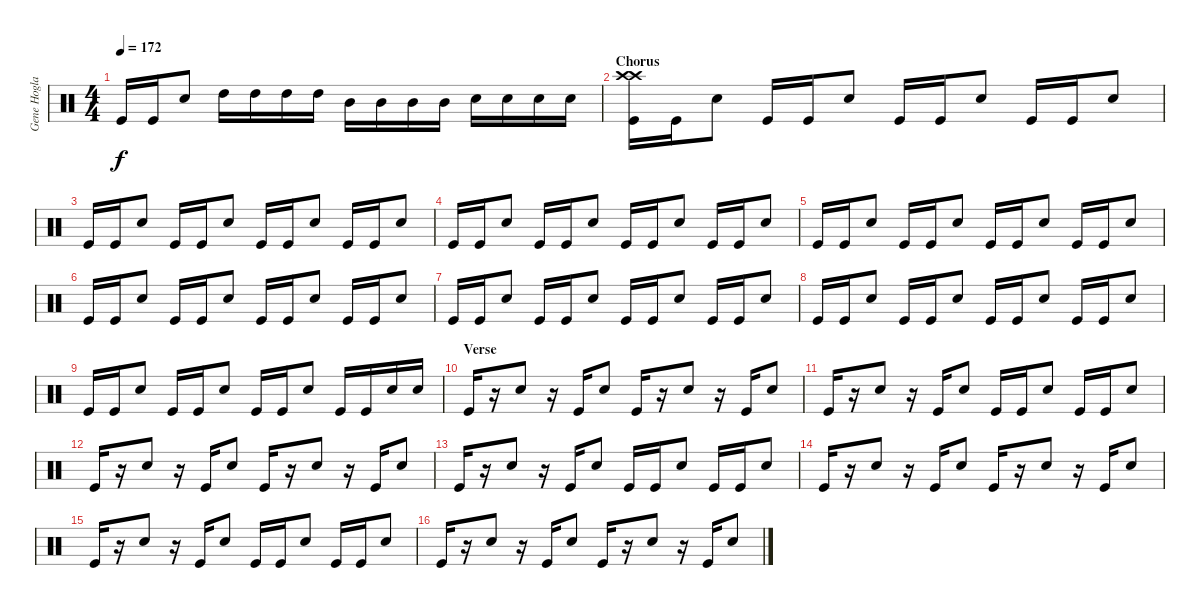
\track ("Gene Hoglan" "Gene Hogla") {instrument percussion}
\staff {score}
\articulation defaults
\ts (4 4)
\tempo 172
\clef neutral
\ks c "Kick (hit)".16{dy f} "Kick (hit)".16 "Snare (hit) 2".8 "High Tom (hit)".16 "High Tom (hit)".16 "High Tom (hit)".16 "High Tom (hit)".16 "Mid Tom (hit)".16 "Mid Tom (hit)".16 "Mid Tom (hit)".16 "Mid Tom (hit)".16 "Snare (hit) 2".16 "Snare (hit) 2".16 "Snare (hit) 2".16 "Snare (hit) 2".16
|
\section ("" "Chorus")
("Crash high (hit)" "Crash high (hit)" "Kick (hit)").16 "Kick (hit)".16 "Snare (hit) 2".8 "Kick (hit)".16 "Kick (hit)".16 "Snare (hit) 2".8 "Kick (hit)".16 "Kick (hit)".16 "Snare (hit) 2".8 "Kick (hit)".16 "Kick (hit)".16 "Snare (hit) 2".8 |
"Kick (hit)".16 "Kick (hit)".16 "Snare (hit) 2".8 "Kick (hit)".16 "Kick (hit)".16 "Snare (hit) 2".8 "Kick (hit)".16 "Kick (hit)".16 "Snare (hit) 2".8 "Kick (hit)".16 "Kick (hit)".16 "Snare (hit) 2".8 |
"Kick (hit)".16 "Kick (hit)".16 "Snare (hit) 2".8 "Kick (hit)".16 "Kick (hit)".16 "Snare (hit) 2".8 "Kick (hit)".16 "Kick (hit)".16 "Snare (hit) 2".8 "Kick (hit)".16 "Kick (hit)".16 "Snare (hit) 2".8 |
"Kick (hit)".16 "Kick (hit)".16 "Snare (hit) 2".8 "Kick (hit)".16 "Kick (hit)".16 "Snare (hit) 2".8 "Kick (hit)".16 "Kick (hit)".16 "Snare (hit) 2".8 "Kick (hit)".16 "Kick (hit)".16 "Snare (hit) 2".8 |
"Kick (hit)".16 "Kick (hit)".16 "Snare (hit) 2".8 "Kick (hit)".16 "Kick (hit)".16 "Snare (hit) 2".8 "Kick (hit)".16 "Kick (hit)".16 "Snare (hit) 2".8 "Kick (hit)".16 "Kick (hit)".16 "Snare (hit) 2".8 |
"Kick (hit)".16 "Kick (hit)".16 "Snare (hit) 2".8 "Kick (hit)".16 "Kick (hit)".16 "Snare (hit) 2".8 "Kick (hit)".16 "Kick (hit)".16 "Snare (hit) 2".8 "Kick (hit)".16 "Kick (hit)".16 "Snare (hit) 2".8 |
"Kick (hit)".16 "Kick (hit)".16 "Snare (hit) 2".8 "Kick (hit)".16 "Kick (hit)".16 "Snare (hit) 2".8 "Kick (hit)".16 "Kick (hit)".16 "Snare (hit) 2".8 "Kick (hit)".16 "Kick (hit)".16 "Snare (hit) 2".8 |
"Kick (hit)".16 "Kick (hit)".16 "Snare (hit) 2".8 "Kick (hit)".16 "Kick (hit)".16 "Snare (hit) 2".8 "Kick (hit)".16 "Kick (hit)".16 "Snare (hit) 2".8 "Kick (hit)".16 "Kick (hit)".16 "Snare (hit) 2".16 "Snare (hit) 2".16 |
\section ("" "Verse")
"Kick (hit)".16 r.16 "Snare (hit) 2".8 r.16 "Kick (hit)".16 "Snare (hit) 2".8 "Kick (hit)".16 r.16 "Snare (hit) 2".8 r.16 "Kick (hit)".16 "Snare (hit) 2".8 |
"Kick (hit)".16 r.16 "Snare (hit) 2".8 r.16 "Kick (hit)".16 "Snare (hit) 2".8 "Kick (hit)".16 "Kick (hit)".16 "Snare (hit) 2".8 "Kick (hit)".16 "Kick (hit)".16 "Snare (hit) 2".8 |
"Kick (hit)".16 r.16 "Snare (hit) 2".8 r.16 "Kick (hit)".16 "Snare (hit) 2".8 "Kick (hit)".16 r.16 "Snare (hit) 2".8 r.16 "Kick (hit)".16 "Snare (hit) 2".8 |
"Kick (hit)".16 r.16 "Snare (hit) 2".8 r.16 "Kick (hit)".16 "Snare (hit) 2".8 "Kick (hit)".16 "Kick (hit)".16 "Snare (hit) 2".8 "Kick (hit)".16 "Kick (hit)".16 "Snare (hit) 2".8 |
"Kick (hit)".16 r.16 "Snare (hit) 2".8 r.16 "Kick (hit)".16 "Snare (hit) 2".8 "Kick (hit)".16 r.16 "Snare (hit) 2".8 r.16 "Kick (hit)".16 "Snare (hit) 2".8 |
"Kick (hit)".16 r.16 "Snare (hit) 2".8 r.16 "Kick (hit)".16 "Snare (hit) 2".8 "Kick (hit)".16 "Kick (hit)".16 "Snare (hit) 2".8 "Kick (hit)".16 "Kick (hit)".16 "Snare (hit) 2".8 |
"Kick (hit)".16 r.16 "Snare (hit) 2".8 r.16 "Kick (hit)".16 "Snare (hit) 2".8 "Kick (hit)".16 r.16 "Snare (hit) 2".8 r.16 "Kick (hit)".16 "Snare (hit) 2".8
